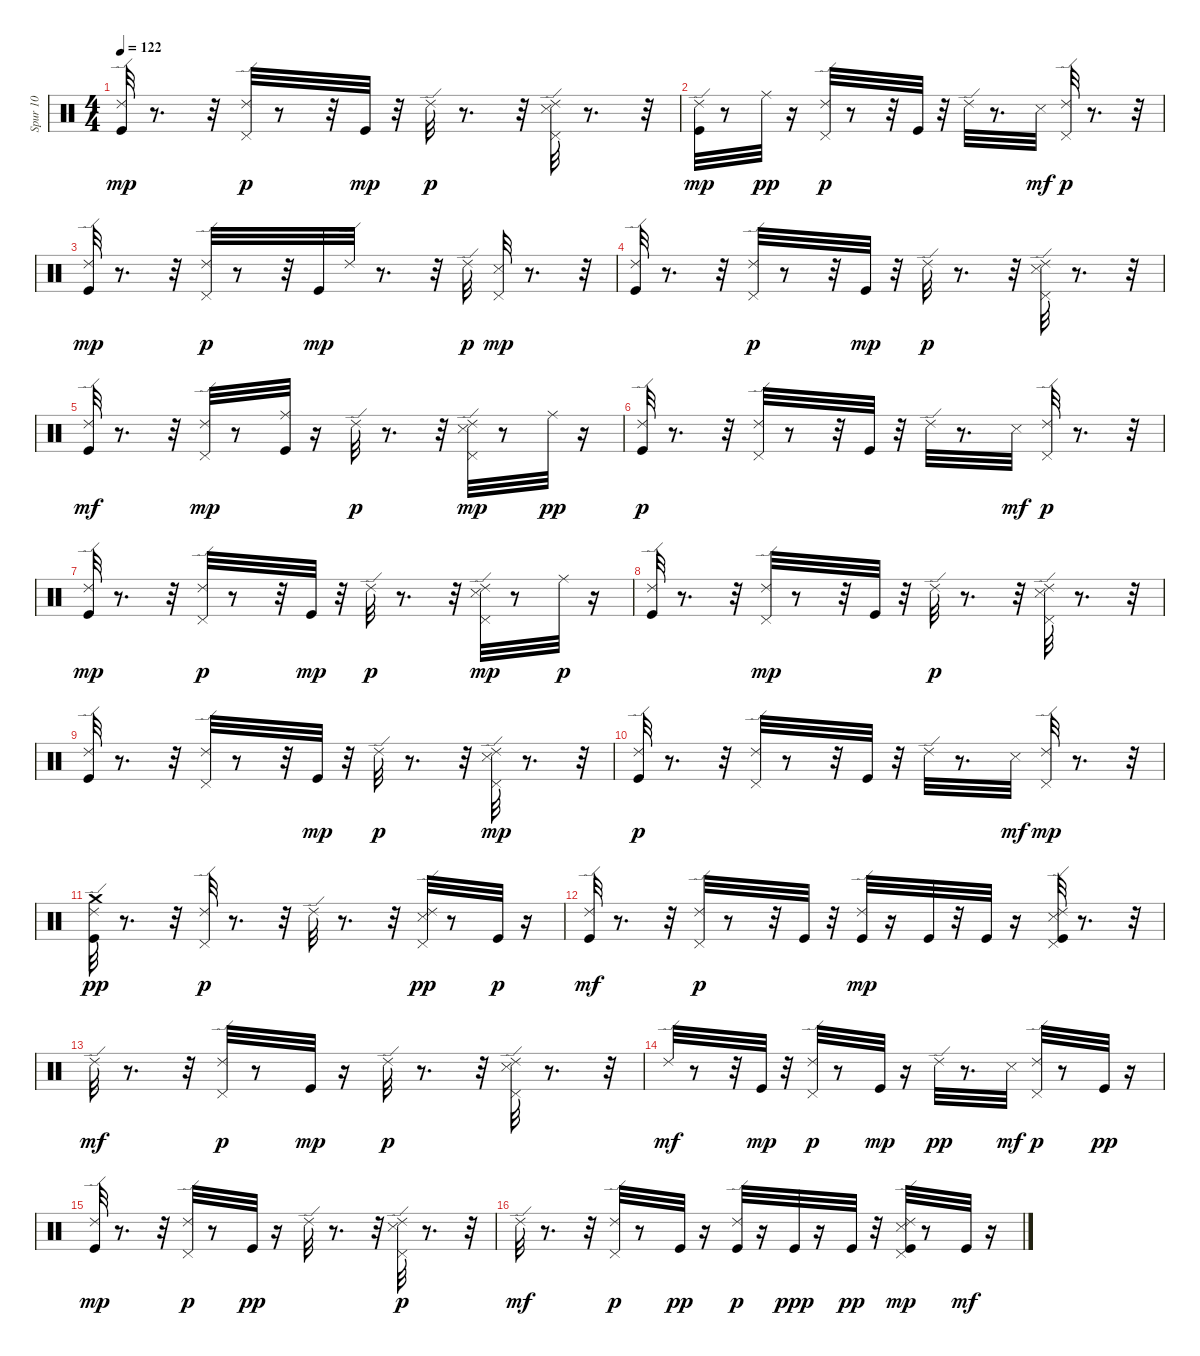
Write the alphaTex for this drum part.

\track ("Spur 10" "Spur 10") {instrument percussion}
\staff {score}
\articulation defaults
\ts (4 4)
\tempo 122
\clef neutral
\ks c
("Kick (hit)" "Ride (edge) 2").32{dy mp} r.8{d} r.32 ("Pedal Hi-Hat (hit)" "Ride (edge) 2").32{dy p} r.8 r.32 "Kick (hit)".32{dy mp} r.32 "Ride (edge) 2".32{dy p} r.8{d} r.32 ("Pedal Hi-Hat (hit)" "Snare (side stick) 3" "Ride (edge) 2").32 r.8{d} r.32 |
("Kick (hit)" "Ride (edge) 2").32{dy mp} r.8 "Ride (middle)".32{dy pp} r.16 ("Pedal Hi-Hat (hit)" "Ride (edge) 2").32{dy p} r.8 r.32 "Kick (hit)".32 r.32 "Ride (edge) 2".32 r.8{d} "Snare (side stick) 3".32{dy mf} ("Pedal Hi-Hat (hit)" "Ride (edge) 2").32{dy p} r.8{d} r.32 |
("Kick (hit)" "Ride (edge) 2").32{dy mp} r.8{d} r.32 ("Pedal Hi-Hat (hit)" "Ride (edge) 2").32{dy p} r.8 r.32 "Kick (hit)".32{dy mp} "Ride (edge) 2".32 r.8{d} r.32 "Ride (edge) 2".32{dy p} ("Snare (side stick) 3" "Pedal Hi-Hat (hit)").32{dy mp} r.8{d} r.32 |
("Kick (hit)" "Ride (edge) 2").32 r.8{d} r.32 ("Pedal Hi-Hat (hit)" "Ride (edge) 2").32{dy p} r.8 r.32 "Kick (hit)".32{dy mp} r.32 "Ride (edge) 2".32{dy p} r.8{d} r.32 ("Snare (side stick) 3" "Pedal Hi-Hat (hit)" "Ride (edge) 2").32 r.8{d} r.32 |
("Ride (edge) 2" "Kick (hit)").32{dy mf} r.8{d} r.32 ("Pedal Hi-Hat (hit)" "Ride (edge) 2").32{dy mp} r.8 ("Ride (middle)" "Kick (hit)").32 r.16 "Ride (edge) 2".32{dy p} r.8{d} r.32 ("Pedal Hi-Hat (hit)" "Snare (side stick) 3" "Ride (edge) 2").32{dy mp} r.8 "Ride (middle)".32{dy pp} r.16 |
("Kick (hit)" "Ride (edge) 2").32{dy p} r.8{d} r.32 ("Pedal Hi-Hat (hit)" "Ride (edge) 2").32 r.8 r.32 "Kick (hit)".32 r.32 "Ride (edge) 2".32 r.8{d} "Snare (side stick) 3".32{dy mf} ("Pedal Hi-Hat (hit)" "Ride (edge) 2").32{dy p} r.8{d} r.32 |
("Kick (hit)" "Ride (edge) 2").32{dy mp} r.8{d} r.32 ("Pedal Hi-Hat (hit)" "Ride (edge) 2").32{dy p} r.8 r.32 "Kick (hit)".32{dy mp} r.32 "Ride (edge) 2".32{dy p} r.8{d} r.32 ("Snare (side stick) 3" "Pedal Hi-Hat (hit)" "Ride (edge) 2").32{dy mp} r.8 "Ride (middle)".32{dy p} r.16 |
("Kick (hit)" "Ride (edge) 2").32 r.8{d} r.32 ("Pedal Hi-Hat (hit)" "Ride (edge) 2").32{dy mp} r.8 r.32 "Kick (hit)".32 r.32 "Ride (edge) 2".32{dy p} r.8{d} r.32 ("Snare (side stick) 3" "Pedal Hi-Hat (hit)" "Ride (edge) 2").32 r.8{d} r.32 |
("Kick (hit)" "Ride (edge) 2").32 r.8{d} r.32 ("Pedal Hi-Hat (hit)" "Ride (edge) 2").32 r.8 r.32 "Kick (hit)".32{dy mp} r.32 "Ride (edge) 2".32{dy p} r.8{d} r.32 ("Pedal Hi-Hat (hit)" "Ride (edge) 2" "Snare (side stick) 3").32{dy mp} r.8{d} r.32 |
("Kick (hit)" "Ride (edge) 2").32{dy p} r.8{d} r.32 ("Pedal Hi-Hat (hit)" "Ride (edge) 2").32 r.8 r.32 "Kick (hit)".32 r.32 "Ride (edge) 2".32 r.8{d} "Snare (side stick) 3".32{dy mf} ("Pedal Hi-Hat (hit)" "Ride (edge) 2").32{dy mp} r.8{d} r.32 |
("Kick (hit)" "Ride (edge) 2" "Crash medium (hit)").32{dy pp} r.8{d} r.32 ("Pedal Hi-Hat (hit)" "Ride (edge) 2").32{dy p} r.8{d} r.32 "Ride (edge) 2".32 r.8{d} r.32 ("Snare (side stick) 3" "Pedal Hi-Hat (hit)" "Ride (edge) 2").32{dy pp} r.8 "Kick (hit)".32{dy p} r.16 |
("Ride (edge) 2" "Kick (hit)").32{dy mf} r.8{d} r.32 ("Pedal Hi-Hat (hit)" "Ride (edge) 2").32{dy p} r.8 r.32 "Kick (hit)".32 r.32 ("Ride (edge) 2" "Kick (hit)").32{dy mp} r.16 "Kick (hit)".32 r.32 "Kick (hit)".32 r.16 ("Snare (side stick) 3" "Pedal Hi-Hat (hit)" "Ride (edge) 2" "Kick (hit)").32 r.8{d} r.32 |
"Ride (edge) 2".32{dy mf} r.8{d} r.32 ("Pedal Hi-Hat (hit)" "Ride (edge) 2").32{dy p} r.8 "Kick (hit)".32{dy mp} r.16 "Ride (edge) 2".32{dy p} r.8{d} r.32 ("Pedal Hi-Hat (hit)" "Snare (side stick) 3" "Ride (edge) 2").32 r.8{d} r.32 |
"Ride (edge) 2".32{dy mf} r.8 r.32 "Kick (hit)".32{dy mp} r.32 ("Pedal Hi-Hat (hit)" "Ride (edge) 2").32{dy p} r.8 "Kick (hit)".32{dy mp} r.16 "Ride (edge) 2".32{dy pp} r.8{d} "Snare (side stick) 3".32{dy mf} ("Pedal Hi-Hat (hit)" "Ride (edge) 2").32{dy p} r.8 "Kick (hit)".32{dy pp} r.16 |
("Ride (edge) 2" "Kick (hit)").32{dy mp} r.8{d} r.32 ("Pedal Hi-Hat (hit)" "Ride (edge) 2").32{dy p} r.8 "Kick (hit)".32{dy pp} r.16 "Ride (edge) 2".32 r.8{d} r.32 ("Snare (side stick) 3" "Pedal Hi-Hat (hit)" "Ride (edge) 2").32{dy p} r.8{d} r.32 |
"Ride (edge) 2".32{dy mf} r.8{d} r.32 ("Pedal Hi-Hat (hit)" "Ride (edge) 2").32{dy p} r.8 "Kick (hit)".32{dy pp} r.16 ("Kick (hit)" "Ride (edge) 2").32{dy p} r.16 "Kick (hit)".32{dy ppp} r.16 "Kick (hit)".32{dy pp} r.32 ("Snare (side stick) 3" "Pedal Hi-Hat (hit)" "Ride (edge) 2" "Kick (hit)").32{dy mp} r.8 "Kick (hit)".32{dy mf} r.16
